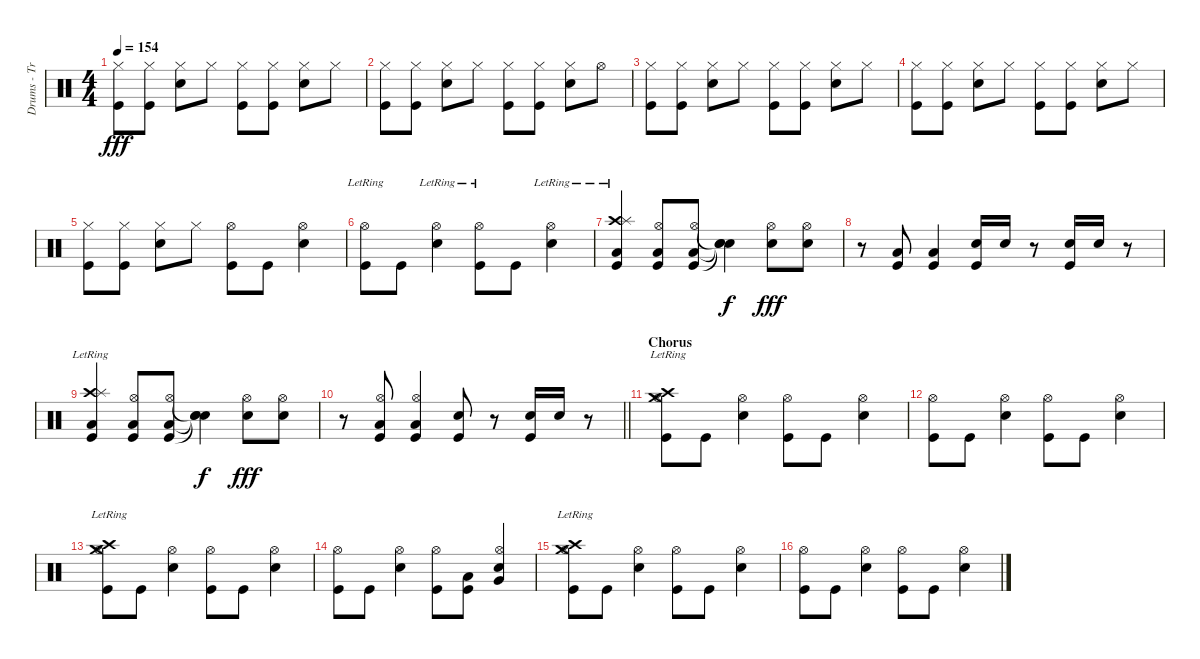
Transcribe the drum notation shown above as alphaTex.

\track ("Drums - Travis" "Drums - Tr") {instrument percussion}
\staff {score}
\articulation defaults
\ts (4 4)
\tempo 154
\clef neutral
\ks c
("Hi-Hat (closed)" "Kick (hit)").8{dy fff} ("Hi-Hat (closed)" "Kick (hit)").8 ("Hi-Hat (closed)" "Snare (hit) 2").8 "Hi-Hat (closed)".8 ("Hi-Hat (closed)" "Kick (hit)").8 ("Hi-Hat (closed)" "Kick (hit)").8 ("Hi-Hat (closed)" "Snare (hit) 2").8 "Hi-Hat (closed)".8 |
("Hi-Hat (closed)" "Kick (hit)").8 ("Hi-Hat (closed)" "Kick (hit)").8 ("Hi-Hat (closed)" "Snare (hit) 2").8 "Hi-Hat (closed)".8 ("Hi-Hat (closed)" "Kick (hit)").8 ("Hi-Hat (closed)" "Kick (hit)").8 ("Hi-Hat (closed)" "Snare (hit) 2").8 "Hi-Hat (open)".8 |
("Hi-Hat (closed)" "Kick (hit)").8 ("Hi-Hat (closed)" "Kick (hit)").8 ("Hi-Hat (closed)" "Snare (hit) 2").8 "Hi-Hat (closed)".8 ("Hi-Hat (closed)" "Kick (hit)").8 ("Hi-Hat (closed)" "Kick (hit)").8 ("Hi-Hat (closed)" "Snare (hit) 2").8 "Hi-Hat (closed)".8 |
("Hi-Hat (closed)" "Kick (hit)").8 ("Hi-Hat (closed)" "Kick (hit)").8 ("Hi-Hat (closed)" "Snare (hit) 2").8 "Hi-Hat (closed)".8 ("Hi-Hat (closed)" "Kick (hit)").8 ("Hi-Hat (closed)" "Kick (hit)").8 ("Hi-Hat (closed)" "Snare (hit) 2").8 "Hi-Hat (closed)".8 |
("Hi-Hat (closed)" "Kick (hit)").8 ("Hi-Hat (closed)" "Kick (hit)").8 ("Hi-Hat (closed)" "Snare (hit) 2").8 "Hi-Hat (closed)".8 ("Hi-Hat (open)" "Kick (hit)").8 "Kick (hit)".8 ("Hi-Hat (open)" "Snare (hit) 2").4 |
("Hi-Hat (open)"{lr} "Kick (hit)").8 "Kick (hit)".8 ("Hi-Hat (open)"{lr} "Snare (hit) 2").4 ("Hi-Hat (open)"{lr} "Kick (hit)").8 "Kick (hit)".8 ("Hi-Hat (open)"{lr} "Snare (hit) 2").4 |
("Crash high (hit)"{lr} "Splash (hit)"{lr} "Low Tom (hit)"{lr} "Kick (hit)"{lr}).4 ("Hi-Hat (open)" "Low Tom (hit)" "Kick (hit)").8 ("Hi-Hat (open)" "Low Tom (hit)" "Kick (hit)").8 ("Snare (hit)"{t} "Snare (hit)"{t} "Snare (hit)"{t}).4{dy f} ("Hi-Hat (open)" "Snare (hit) 2").8{dy fff} ("Hi-Hat (open)" "Snare (hit) 2").8 |
r.8 ("Low Tom (hit)" "Kick (hit)").8 ("Low Tom (hit)" "Kick (hit)").4 ("Snare (hit) 2" "Kick (hit)").16 "Snare (hit) 2".16 r.8 ("Snare (hit) 2" "Kick (hit)").16 "Snare (hit) 2".16 r.8 |
("Crash high (hit)"{lr} "Splash (hit)"{lr} "Low Tom (hit)"{lr} "Kick (hit)"{lr}).4 ("Hi-Hat (open)" "Low Tom (hit)" "Kick (hit)").8 ("Hi-Hat (open)" "Low Tom (hit)" "Kick (hit)").8 ("Snare (hit)"{t} "Snare (hit)"{t} "Snare (hit)"{t}).4{dy f} ("Hi-Hat (open)" "Snare (hit) 2").8{dy fff} ("Hi-Hat (open)" "Snare (hit) 2").8 |
\barLineRight lightlight
r.8 ("Hi-Hat (open)" "Low Tom (hit)" "Kick (hit)").8 ("Hi-Hat (open)" "Low Tom (hit)" "Kick (hit)").4 ("Snare (hit) 2" "Kick (hit)").8 r.8 ("Snare (hit) 2" "Kick (hit)").16 "Snare (hit) 2".16 r.8 |
\section ("" "Chorus ")
("Crash high (hit)"{lr} "Hi-Hat (open)" "Crash medium (hit)"{lr} "Kick (hit)").8 "Kick (hit)".8 ("Hi-Hat (open)" "Snare (hit) 2").4 ("Hi-Hat (open)" "Kick (hit)").8 "Kick (hit)".8 ("Hi-Hat (open)" "Snare (hit) 2").4 |
("Hi-Hat (open)" "Kick (hit)").8 "Kick (hit)".8 ("Hi-Hat (open)" "Snare (hit) 2").4 ("Hi-Hat (open)" "Kick (hit)").8 "Kick (hit)".8 ("Hi-Hat (open)" "Snare (hit) 2").4 |
("Crash high (hit)"{lr} "Hi-Hat (open)" "Crash medium (hit)"{lr} "Kick (hit)").8 "Kick (hit)".8 ("Hi-Hat (open)" "Snare (hit) 2").4 ("Hi-Hat (open)" "Kick (hit)").8 "Kick (hit)".8 ("Hi-Hat (open)" "Snare (hit) 2").4 |
("Hi-Hat (open)" "Kick (hit)").8 "Kick (hit)".8 ("Hi-Hat (open)" "Snare (hit) 2").4 ("Hi-Hat (open)" "Kick (hit)").8 ("Low Tom (hit)" "Kick (hit)").8 ("Hi-Hat (open)" "Very Low Tom (hit)" "Snare (hit) 2").4 |
("Crash high (hit)"{lr} "Hi-Hat (open)" "Crash medium (hit)"{lr} "Kick (hit)").8 "Kick (hit)".8 ("Hi-Hat (open)" "Snare (hit) 2").4 ("Hi-Hat (open)" "Kick (hit)").8 "Kick (hit)".8 ("Hi-Hat (open)" "Snare (hit) 2").4 |
("Hi-Hat (open)" "Kick (hit)").8 "Kick (hit)".8 ("Hi-Hat (open)" "Snare (hit) 2").4 ("Hi-Hat (open)" "Kick (hit)").8 "Kick (hit)".8 ("Hi-Hat (open)" "Snare (hit) 2").4
